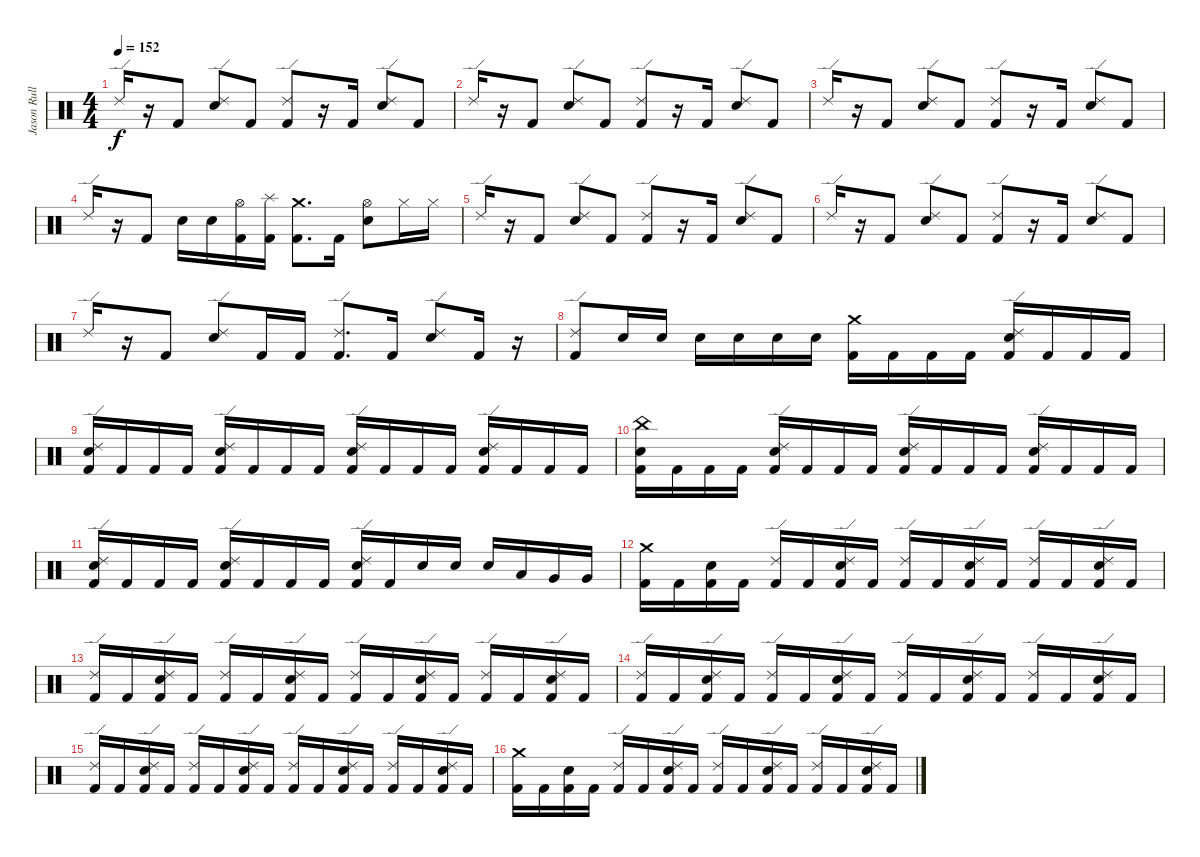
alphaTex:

\track ("Jason Rullo" "Jason Rull") {instrument percussion}
\staff {score}
\articulation defaults
\ts (4 4)
\tempo 152
\clef neutral
\ks c "Ride (edge) 2".16{dy f}
r.16 "Kick (hit) 2".8 ("Ride (edge) 2" "Electric Snare (hit)").8 "Kick (hit) 2".8 ("Ride (edge) 2" "Kick (hit) 2").8 r.16 "Kick (hit) 2".16 ("Electric Snare (hit)" "Ride (edge) 2").8 "Kick (hit) 2".8 |
"Ride (edge) 2".16 r.16 "Kick (hit) 2".8 ("Electric Snare (hit)" "Ride (edge) 2").8 "Kick (hit) 2".8 ("Ride (edge) 2" "Kick (hit) 2").8 r.16 "Kick (hit) 2".16 ("Electric Snare (hit)" "Ride (edge) 2").8 "Kick (hit) 2".8 |
"Ride (edge) 2".16 r.16 "Kick (hit) 2".8 ("Electric Snare (hit)" "Ride (edge) 2").8 "Kick (hit) 2".8 ("Ride (edge) 2" "Kick (hit) 2").8 r.16 "Kick (hit) 2".16 ("Electric Snare (hit)" "Ride (edge) 2").8 "Kick (hit) 2".8 |
"Ride (edge) 2".16 r.16 "Kick (hit) 2".8 "Electric Snare (hit)".16 "Electric Snare (hit)".16 ("Kick (hit) 2" "Hi-Hat (open)").16 ("Kick (hit) 2" "Splash (hit)").16 ("Crash medium (hit)" "Kick (hit) 2").8{d} "Kick (hit) 2".16 ("Hi-Hat (open)" "Electric Snare (hit)").8 "Hi-Hat (closed)".16 "Hi-Hat (closed)".16 |
"Ride (edge) 2".16 r.16 "Kick (hit) 2".8 ("Ride (edge) 2" "Electric Snare (hit)").8 "Kick (hit) 2".8 ("Ride (edge) 2" "Kick (hit) 2").8 r.16 "Kick (hit) 2".16 ("Electric Snare (hit)" "Ride (edge) 2").8 "Kick (hit) 2".8 |
"Ride (edge) 2".16 r.16 "Kick (hit) 2".8 ("Electric Snare (hit)" "Ride (edge) 2").8 "Kick (hit) 2".8 ("Ride (edge) 2" "Kick (hit) 2").8 r.16 "Kick (hit) 2".16 ("Electric Snare (hit)" "Ride (edge) 2").8 "Kick (hit) 2".8 |
"Ride (edge) 2".16 r.16 "Kick (hit) 2".8 ("Electric Snare (hit)" "Ride (edge) 2").8 "Kick (hit) 2".16 "Kick (hit) 2".16 ("Ride (edge) 2" "Kick (hit) 2").8{d} "Kick (hit) 2".16 ("Ride (edge) 2" "Electric Snare (hit)").8 "Kick (hit) 2".16 r.16 |
("Ride (edge) 2" "Kick (hit) 2").8 "Electric Snare (hit)".16 "Electric Snare (hit)".16 "Electric Snare (hit)".16 "Electric Snare (hit)".16 "Electric Snare (hit)".16 "Electric Snare (hit)".16 ("Crash medium (hit)" "Kick (hit) 2").16 "Kick (hit) 2".16 "Kick (hit) 2".16 "Kick (hit) 2".16 ("Ride (edge) 2" "Electric Snare (hit)" "Kick (hit) 2").16 "Kick (hit) 2".16 "Kick (hit) 2".16 "Kick (hit) 2".16 |
("Ride (edge) 2" "Electric Snare (hit)" "Kick (hit) 2").16 "Kick (hit) 2".16 "Kick (hit) 2".16 "Kick (hit) 2".16 ("Ride (edge) 2" "Electric Snare (hit)" "Kick (hit) 2").16 "Kick (hit) 2".16 "Kick (hit) 2".16 "Kick (hit) 2".16 ("Ride (edge) 2" "Electric Snare (hit)" "Kick (hit) 2").16 "Kick (hit) 2".16 "Kick (hit) 2".16 "Kick (hit) 2".16 ("Ride (edge) 2" "Electric Snare (hit)" "Kick (hit) 2").16 "Kick (hit) 2".16 "Kick (hit) 2".16 "Kick (hit) 2".16 |
("China (hit)" "Electric Snare (hit)" "Kick (hit) 2").16 "Kick (hit) 2".16 "Kick (hit) 2".16 "Kick (hit) 2".16 ("Ride (edge) 2" "Electric Snare (hit)" "Kick (hit) 2").16 "Kick (hit) 2".16 "Kick (hit) 2".16 "Kick (hit) 2".16 ("Ride (edge) 2" "Electric Snare (hit)" "Kick (hit) 2").16 "Kick (hit) 2".16 "Kick (hit) 2".16 "Kick (hit) 2".16 ("Ride (edge) 2" "Electric Snare (hit)" "Kick (hit) 2").16 "Kick (hit) 2".16 "Kick (hit) 2".16 "Kick (hit) 2".16 |
("Ride (edge) 2" "Electric Snare (hit)" "Kick (hit) 2").16 "Kick (hit) 2".16 "Kick (hit) 2".16 "Kick (hit) 2".16 ("Ride (edge) 2" "Electric Snare (hit)" "Kick (hit) 2").16 "Kick (hit) 2".16 "Kick (hit) 2".16 "Kick (hit) 2".16 ("Ride (edge) 2" "Electric Snare (hit)" "Kick (hit) 2").16 "Kick (hit) 2".16 "Electric Snare (hit)".16 "Electric Snare (hit)".16 "Electric Snare (hit)".16 "Low Tom (hit)".16 "Very Low Tom (hit)".16 "Very Low Tom (hit)".16 |
("Crash medium (hit)" "Kick (hit) 2").16 "Kick (hit) 2".16 ("Electric Snare (hit)" "Kick (hit) 2").16 "Kick (hit) 2".16 ("Ride (edge) 2" "Kick (hit) 2").16 "Kick (hit) 2".16 ("Electric Snare (hit)" "Ride (edge) 2" "Kick (hit) 2").16 "Kick (hit) 2".16 ("Ride (edge) 2" "Kick (hit) 2").16 "Kick (hit) 2".16 ("Electric Snare (hit)" "Ride (edge) 2" "Kick (hit) 2").16 "Kick (hit) 2".16 ("Ride (edge) 2" "Kick (hit) 2").16 "Kick (hit) 2".16 ("Electric Snare (hit)" "Ride (edge) 2" "Kick (hit) 2").16 "Kick (hit) 2".16 |
("Ride (edge) 2" "Kick (hit) 2").16 "Kick (hit) 2".16 ("Electric Snare (hit)" "Ride (edge) 2" "Kick (hit) 2").16 "Kick (hit) 2".16 ("Ride (edge) 2" "Kick (hit) 2").16 "Kick (hit) 2".16 ("Electric Snare (hit)" "Ride (edge) 2" "Kick (hit) 2").16 "Kick (hit) 2".16 ("Ride (edge) 2" "Kick (hit) 2").16 "Kick (hit) 2".16 ("Electric Snare (hit)" "Ride (edge) 2" "Kick (hit) 2").16 "Kick (hit) 2".16 ("Ride (edge) 2" "Kick (hit) 2").16 "Kick (hit) 2".16 ("Electric Snare (hit)" "Ride (edge) 2" "Kick (hit) 2").16 "Kick (hit) 2".16 |
("Ride (edge) 2" "Kick (hit) 2").16 "Kick (hit) 2".16 ("Electric Snare (hit)" "Ride (edge) 2" "Kick (hit) 2").16 "Kick (hit) 2".16 ("Ride (edge) 2" "Kick (hit) 2").16 "Kick (hit) 2".16 ("Electric Snare (hit)" "Ride (edge) 2" "Kick (hit) 2").16 "Kick (hit) 2".16 ("Ride (edge) 2" "Kick (hit) 2").16 "Kick (hit) 2".16 ("Electric Snare (hit)" "Ride (edge) 2" "Kick (hit) 2").16 "Kick (hit) 2".16 ("Ride (edge) 2" "Kick (hit) 2").16 "Kick (hit) 2".16 ("Electric Snare (hit)" "Ride (edge) 2" "Kick (hit) 2").16 "Kick (hit) 2".16 |
("Ride (edge) 2" "Kick (hit) 2").16 "Kick (hit) 2".16 ("Electric Snare (hit)" "Ride (edge) 2" "Kick (hit) 2").16 "Kick (hit) 2".16 ("Ride (edge) 2" "Kick (hit) 2").16 "Kick (hit) 2".16 ("Electric Snare (hit)" "Ride (edge) 2" "Kick (hit) 2").16 "Kick (hit) 2".16 ("Ride (edge) 2" "Kick (hit) 2").16 "Kick (hit) 2".16 ("Electric Snare (hit)" "Ride (edge) 2" "Kick (hit) 2").16 "Kick (hit) 2".16 ("Ride (edge) 2" "Kick (hit) 2").16 "Kick (hit) 2".16 ("Electric Snare (hit)" "Ride (edge) 2" "Kick (hit) 2").16 "Kick (hit) 2".16 |
("Crash medium (hit)" "Kick (hit) 2").16 "Kick (hit) 2".16 ("Electric Snare (hit)" "Kick (hit) 2").16 "Kick (hit) 2".16 ("Ride (edge) 2" "Kick (hit) 2").16 "Kick (hit) 2".16 ("Electric Snare (hit)" "Ride (edge) 2" "Kick (hit) 2").16 "Kick (hit) 2".16 ("Ride (edge) 2" "Kick (hit) 2").16 "Kick (hit) 2".16 ("Electric Snare (hit)" "Ride (edge) 2" "Kick (hit) 2").16 "Kick (hit) 2".16 ("Ride (edge) 2" "Kick (hit) 2").16 "Kick (hit) 2".16 ("Electric Snare (hit)" "Ride (edge) 2" "Kick (hit) 2").16 "Kick (hit) 2".16
